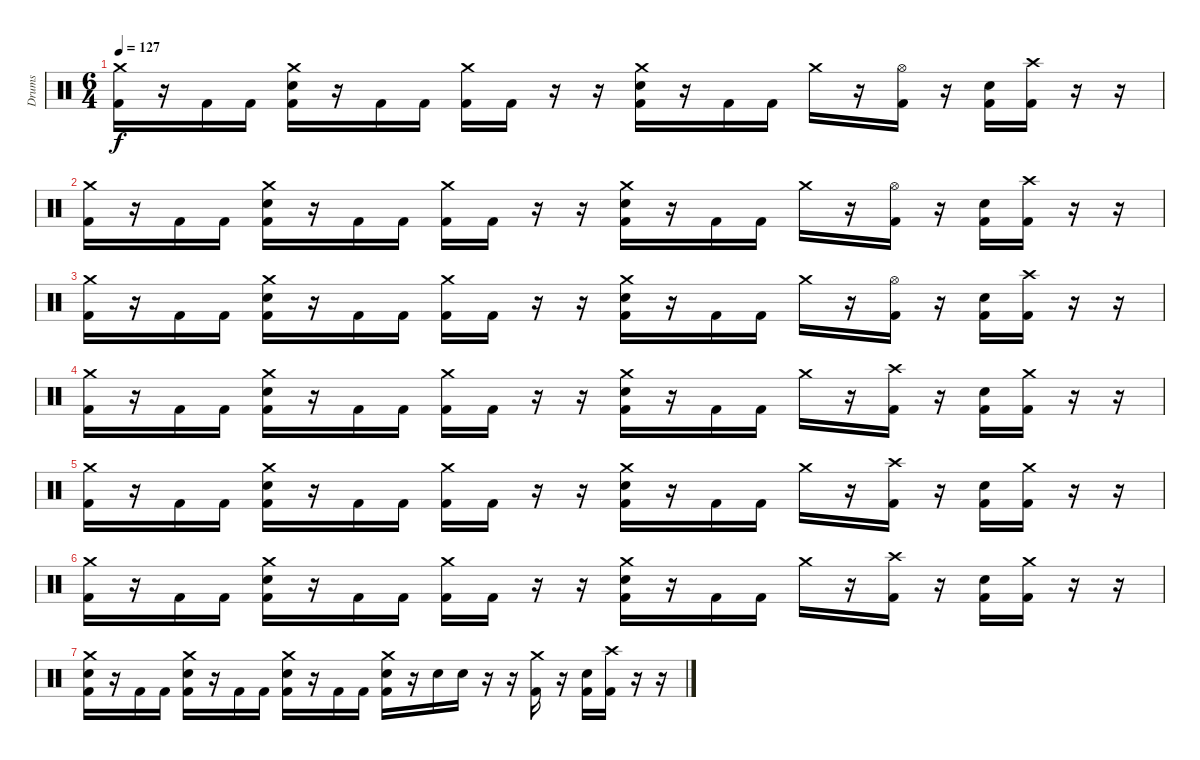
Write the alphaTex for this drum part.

\track ("Drums" "Drums") {instrument percussion}
\staff {score}
\articulation defaults
\ts (6 4)
\tempo 127
\clef neutral
\ks c
("Crash medium (hit)" "Kick (hit) 2").16{dy f} r.16 "Kick (hit) 2".16 "Kick (hit) 2".16 ("Crash medium (hit)" "Electric Snare (hit)" "Kick (hit) 2").16 r.16 "Kick (hit) 2".16 "Kick (hit) 2".16 ("Crash medium (hit)" "Kick (hit) 2").16 "Kick (hit) 2".16 r.16 r.16 ("Crash medium (hit)" "Electric Snare (hit)" "Kick (hit) 2").16 r.16 "Kick (hit) 2".16 "Kick (hit) 2".16 "Crash medium (hit)".16 r.16 ("Hi-Hat (open)" "Kick (hit) 2").16 r.16 ("Electric Snare (hit)" "Kick (hit) 2").16 ("Crash high (hit)" "Kick (hit) 2").16 r.16 r.16 |
("Crash medium (hit)" "Kick (hit) 2").16 r.16 "Kick (hit) 2".16 "Kick (hit) 2".16 ("Crash medium (hit)" "Electric Snare (hit)" "Kick (hit) 2").16 r.16 "Kick (hit) 2".16 "Kick (hit) 2".16 ("Crash medium (hit)" "Kick (hit) 2").16 "Kick (hit) 2".16 r.16 r.16 ("Crash medium (hit)" "Electric Snare (hit)" "Kick (hit) 2").16 r.16 "Kick (hit) 2".16 "Kick (hit) 2".16 "Crash medium (hit)".16 r.16 ("Hi-Hat (open)" "Kick (hit) 2").16 r.16 ("Electric Snare (hit)" "Kick (hit) 2").16 ("Crash high (hit)" "Kick (hit) 2").16 r.16 r.16 |
("Crash medium (hit)" "Kick (hit) 2").16 r.16 "Kick (hit) 2".16 "Kick (hit) 2".16 ("Crash medium (hit)" "Electric Snare (hit)" "Kick (hit) 2").16 r.16 "Kick (hit) 2".16 "Kick (hit) 2".16 ("Crash medium (hit)" "Kick (hit) 2").16 "Kick (hit) 2".16 r.16 r.16 ("Crash medium (hit)" "Electric Snare (hit)" "Kick (hit) 2").16 r.16 "Kick (hit) 2".16 "Kick (hit) 2".16 "Crash medium (hit)".16 r.16 ("Hi-Hat (open)" "Kick (hit) 2").16 r.16 ("Electric Snare (hit)" "Kick (hit) 2").16 ("Crash high (hit)" "Kick (hit) 2").16 r.16 r.16 |
("Crash medium (hit)" "Kick (hit) 2").16 r.16 "Kick (hit) 2".16 "Kick (hit) 2".16 ("Crash medium (hit)" "Electric Snare (hit)" "Kick (hit) 2").16 r.16 "Kick (hit) 2".16 "Kick (hit) 2".16 ("Crash medium (hit)" "Kick (hit) 2").16 "Kick (hit) 2".16 r.16 r.16 ("Crash medium (hit)" "Electric Snare (hit)" "Kick (hit) 2").16 r.16 "Kick (hit) 2".16 "Kick (hit) 2".16 "Crash medium (hit)".16 r.16 ("Crash high (hit)" "Kick (hit) 2").16 r.16 ("Electric Snare (hit)" "Kick (hit) 2").16 ("Crash medium (hit)" "Kick (hit) 2").16 r.16 r.16 |
("Crash medium (hit)" "Kick (hit) 2").16 r.16 "Kick (hit) 2".16 "Kick (hit) 2".16 ("Crash medium (hit)" "Electric Snare (hit)" "Kick (hit) 2").16 r.16 "Kick (hit) 2".16 "Kick (hit) 2".16 ("Crash medium (hit)" "Kick (hit) 2").16 "Kick (hit) 2".16 r.16 r.16 ("Crash medium (hit)" "Electric Snare (hit)" "Kick (hit) 2").16 r.16 "Kick (hit) 2".16 "Kick (hit) 2".16 "Crash medium (hit)".16 r.16 ("Crash high (hit)" "Kick (hit) 2").16 r.16 ("Electric Snare (hit)" "Kick (hit) 2").16 ("Crash medium (hit)" "Kick (hit) 2").16 r.16 r.16 |
("Crash medium (hit)" "Kick (hit) 2").16 r.16 "Kick (hit) 2".16 "Kick (hit) 2".16 ("Crash medium (hit)" "Electric Snare (hit)" "Kick (hit) 2").16 r.16 "Kick (hit) 2".16 "Kick (hit) 2".16 ("Crash medium (hit)" "Kick (hit) 2").16 "Kick (hit) 2".16 r.16 r.16 ("Crash medium (hit)" "Electric Snare (hit)" "Kick (hit) 2").16 r.16 "Kick (hit) 2".16 "Kick (hit) 2".16 "Crash medium (hit)".16 r.16 ("Crash high (hit)" "Kick (hit) 2").16 r.16 ("Electric Snare (hit)" "Kick (hit) 2").16 ("Crash medium (hit)" "Kick (hit) 2").16 r.16 r.16 |
("Crash medium (hit)" "Electric Snare (hit)" "Kick (hit) 2").16 r.16 "Kick (hit) 2".16 "Kick (hit) 2".16 ("Crash medium (hit)" "Electric Snare (hit)" "Kick (hit) 2").16 r.16 "Kick (hit) 2".16 "Kick (hit) 2".16 ("Crash medium (hit)" "Electric Snare (hit)" "Kick (hit) 2").16 r.16 "Kick (hit) 2".16 "Kick (hit) 2".16 ("Crash medium (hit)" "Electric Snare (hit)" "Kick (hit) 2").16 r.16 "Electric Snare (hit)".16 "Electric Snare (hit)".16 r.16 r.16 ("Crash medium (hit)" "Kick (hit) 2").16 r.16 ("Electric Snare (hit)" "Kick (hit) 2").16 ("Crash high (hit)" "Kick (hit) 2").16 r.16 r.16
